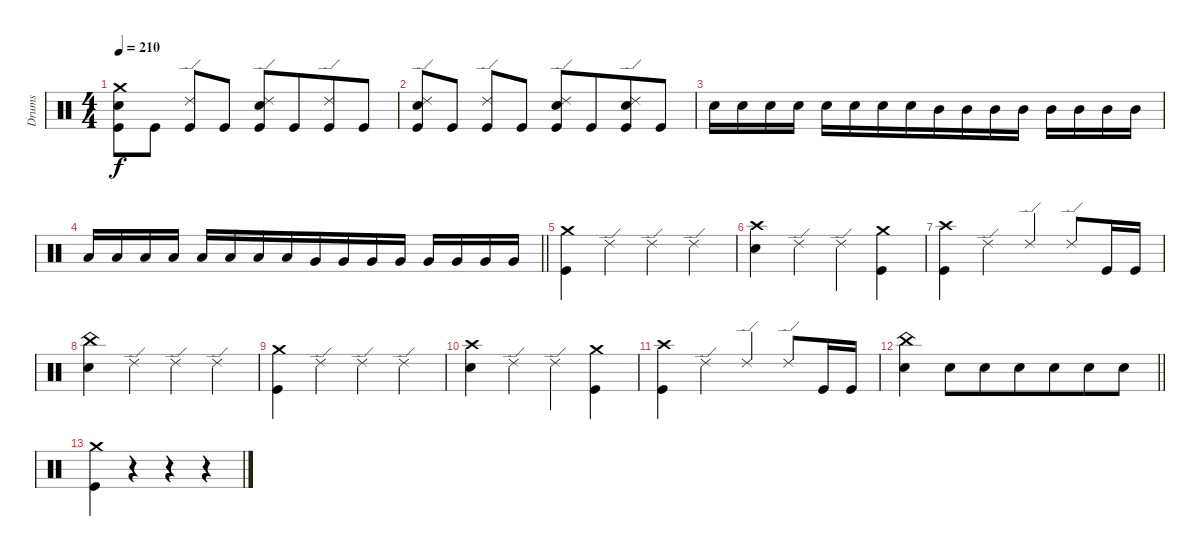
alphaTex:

\track ("Drums" "Drums") {instrument percussion}
\staff {score}
\articulation defaults
\ts (4 4)
\tempo 210
\clef neutral
\ks c
("Crash medium (hit)" "Electric Snare (hit)" "Kick (hit)").8{dy f} "Kick (hit)".8 ("Ride (edge) 2" "Kick (hit)").8{beam merge} "Kick (hit)".8 ("Ride (edge) 2" "Electric Snare (hit)" "Kick (hit)").8 "Kick (hit)".8{beam merge} ("Ride (edge) 2" "Kick (hit)").8 "Kick (hit)".8 |
("Ride (edge) 2" "Electric Snare (hit)" "Kick (hit)").8 "Kick (hit)".8 ("Ride (edge) 2" "Kick (hit)").8{beam merge} "Kick (hit)".8 ("Ride (edge) 2" "Electric Snare (hit)" "Kick (hit)").8 "Kick (hit)".8{beam merge} ("Ride (edge) 2" "Electric Snare (hit)" "Kick (hit)").8 "Kick (hit)".8 |
"Electric Snare (hit)".16{beam merge} "Electric Snare (hit)".16 "Electric Snare (hit)".16 "Electric Snare (hit)".16 "Electric Snare (hit)".16{beam merge} "Electric Snare (hit)".16 "Electric Snare (hit)".16 "Electric Snare (hit)".16{beam merge} "Mid Tom (hit)".16 "Mid Tom (hit)".16 "Mid Tom (hit)".16 "Mid Tom (hit)".16 "Mid Tom (hit)".16 "Mid Tom (hit)".16 "Mid Tom (hit)".16 "Mid Tom (hit)".16 |
\barLineRight lightlight "Low Tom (hit)".16 "Low Tom (hit)".16 "Low Tom (hit)".16 "Low Tom (hit)".16 "Low Tom (hit)".16 "Low Tom (hit)".16{beam merge} "Low Tom (hit)".16 "Low Tom (hit)".16{beam merge} "Very Low Tom (hit)".16{beam merge} "Very Low Tom (hit)".16 "Very Low Tom (hit)".16 "Very Low Tom (hit)".16 "Very Low Tom (hit)".16 "Very Low Tom (hit)".16{beam merge} "Very Low Tom (hit)".16 "Very Low Tom (hit)".16
|
("Crash medium (hit)" "Kick (hit)").4 "Ride (edge) 2".4 "Ride (edge) 2".4 "Ride (edge) 2".4 |
("Crash high (hit)" "Electric Snare (hit)").4 "Ride (edge) 2".4 "Ride (edge) 2".4{beam merge} ("Crash medium (hit)" "Kick (hit)").4 |
("Crash high (hit)" "Kick (hit)").4 "Ride (edge) 2".4 "Ride (edge) 2".4{beam merge} "Ride (edge) 2".8{beam merge} "Kick (hit)".16 "Kick (hit)".16 |
("China (hit)" "Electric Snare (hit)").4{beam merge} "Ride (edge) 2".4 "Ride (edge) 2".4 "Ride (edge) 2".4 |
("Crash medium (hit)" "Kick (hit)").4 "Ride (edge) 2".4 "Ride (edge) 2".4 "Ride (edge) 2".4 |
("Crash high (hit)" "Electric Snare (hit)").4 "Ride (edge) 2".4 "Ride (edge) 2".4{beam merge} ("Crash medium (hit)" "Kick (hit)").4 |
("Crash high (hit)" "Kick (hit)").4 "Ride (edge) 2".4 "Ride (edge) 2".4{beam merge} "Ride (edge) 2".8{beam merge} "Kick (hit)".16 "Kick (hit)".16 |
\barLineRight lightlight
("China (hit)" "Electric Snare (hit)").4 "Electric Snare (hit)".8 "Electric Snare (hit)".8{beam merge} "Electric Snare (hit)".8 "Electric Snare (hit)".8{beam merge} "Electric Snare (hit)".8 "Electric Snare (hit)".8 |
("Crash medium (hit)" "Kick (hit)").4 r.4 r.4{beam merge} r.4
